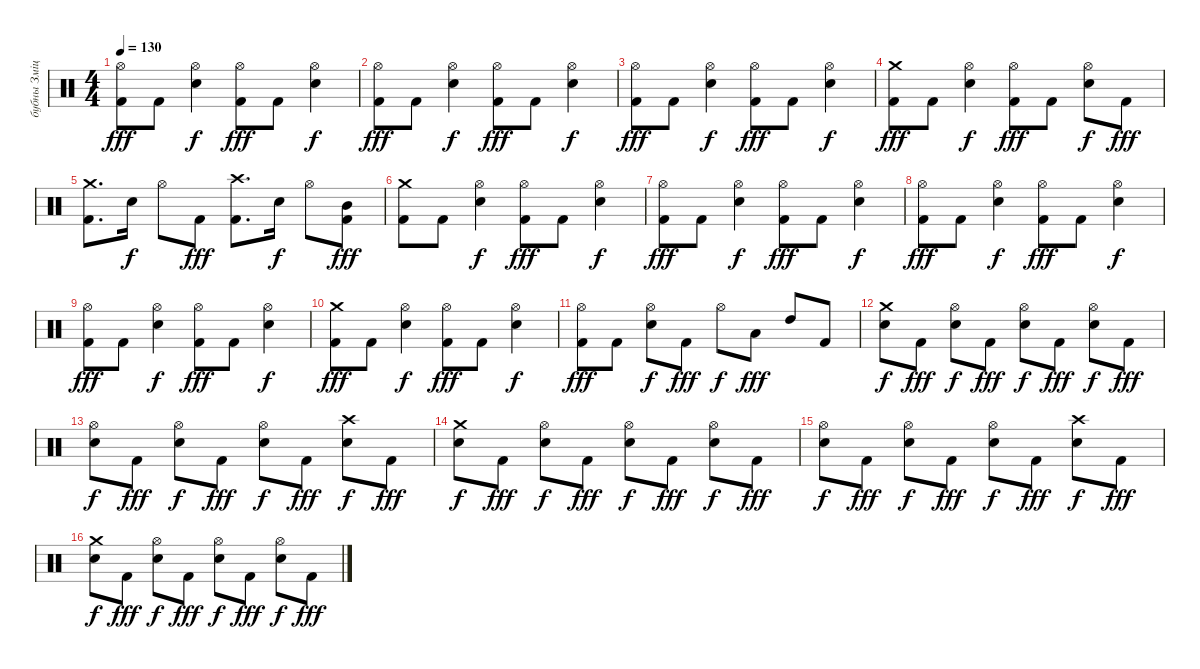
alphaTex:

\track ("бубны Змiцер" "бубны Змiц") {instrument percussion}
\staff {score}
\articulation defaults
\ts (4 4)
\tempo 130
\clef neutral
\ks c
("Hi-Hat (open)" "Kick (hit) 2").8{dy fff} "Kick (hit) 2".8 ("Hi-Hat (open)" "Electric Snare (hit)").4{dy f} ("Hi-Hat (open)" "Kick (hit) 2").8{dy fff} "Kick (hit) 2".8 ("Hi-Hat (open)" "Electric Snare (hit)").4{dy f} |
("Hi-Hat (open)" "Kick (hit) 2").8{dy fff} "Kick (hit) 2".8 ("Hi-Hat (open)" "Electric Snare (hit)").4{dy f} ("Hi-Hat (open)" "Kick (hit) 2").8{dy fff} "Kick (hit) 2".8 ("Hi-Hat (open)" "Electric Snare (hit)").4{dy f} |
("Hi-Hat (open)" "Kick (hit) 2").8{dy fff} "Kick (hit) 2".8 ("Hi-Hat (open)" "Electric Snare (hit)").4{dy f} ("Hi-Hat (open)" "Kick (hit) 2").8{dy fff} "Kick (hit) 2".8 ("Hi-Hat (open)" "Electric Snare (hit)").4{dy f} |
("Crash medium (hit)" "Kick (hit) 2").8{dy fff} "Kick (hit) 2".8 ("Hi-Hat (open)" "Electric Snare (hit)").4{dy f} ("Hi-Hat (open)" "Kick (hit) 2").8{dy fff} "Kick (hit) 2".8 ("Hi-Hat (open)" "Electric Snare (hit)").8{dy f} "Kick (hit) 2".8{dy fff} |
("Crash medium (hit)" "Kick (hit) 2").8{d} "Electric Snare (hit)".16{dy f} "Hi-Hat (open)".8 "Kick (hit) 2".8{dy fff} ("Crash high (hit)" "Kick (hit) 2").8{d} "Electric Snare (hit)".16{dy f} "Hi-Hat (open)".8 ("Mid Tom (hit)" "Kick (hit) 2").8{dy fff} |
("Crash medium (hit)" "Kick (hit) 2").8 "Kick (hit) 2".8 ("Hi-Hat (open)" "Electric Snare (hit)").4{dy f} ("Hi-Hat (open)" "Kick (hit) 2").8{dy fff} "Kick (hit) 2".8 ("Hi-Hat (open)" "Electric Snare (hit)").4{dy f} |
("Hi-Hat (open)" "Kick (hit) 2").8{dy fff} "Kick (hit) 2".8 ("Hi-Hat (open)" "Electric Snare (hit)").4{dy f} ("Hi-Hat (open)" "Kick (hit) 2").8{dy fff} "Kick (hit) 2".8 ("Hi-Hat (open)" "Electric Snare (hit)").4{dy f} |
("Hi-Hat (open)" "Kick (hit) 2").8{dy fff} "Kick (hit) 2".8 ("Hi-Hat (open)" "Electric Snare (hit)").4{dy f} ("Hi-Hat (open)" "Kick (hit) 2").8{dy fff} "Kick (hit) 2".8 ("Hi-Hat (open)" "Electric Snare (hit)").4{dy f} |
("Hi-Hat (open)" "Kick (hit) 2").8{dy fff} "Kick (hit) 2".8 ("Hi-Hat (open)" "Electric Snare (hit)").4{dy f} ("Hi-Hat (open)" "Kick (hit) 2").8{dy fff} "Kick (hit) 2".8 ("Hi-Hat (open)" "Electric Snare (hit)").4{dy f} |
("Crash medium (hit)" "Kick (hit) 2").8{dy fff} "Kick (hit) 2".8 ("Hi-Hat (open)" "Electric Snare (hit)").4{dy f} ("Hi-Hat (open)" "Kick (hit) 2").8{dy fff} "Kick (hit) 2".8 ("Hi-Hat (open)" "Electric Snare (hit)").4{dy f} |
("Hi-Hat (open)" "Kick (hit) 2").8{dy fff} "Kick (hit) 2".8 ("Hi-Hat (open)" "Electric Snare (hit)").8{dy f} "Kick (hit) 2".8{dy fff} "Hi-Hat (open)".8{dy f} "Low Tom (hit)".8{dy fff} "High Tom (hit)".8 "Kick (hit) 2".8 |
("Crash medium (hit)" "Electric Snare (hit)").8{dy f} "Kick (hit) 2".8{dy fff} ("Hi-Hat (open)" "Electric Snare (hit)").8{dy f} "Kick (hit) 2".8{dy fff} ("Hi-Hat (open)" "Electric Snare (hit)").8{dy f} "Kick (hit) 2".8{dy fff} ("Hi-Hat (open)" "Electric Snare (hit)").8{dy f} "Kick (hit) 2".8{dy fff} |
("Hi-Hat (open)" "Electric Snare (hit)").8{dy f} "Kick (hit) 2".8{dy fff} ("Hi-Hat (open)" "Electric Snare (hit)").8{dy f} "Kick (hit) 2".8{dy fff} ("Hi-Hat (open)" "Electric Snare (hit)").8{dy f} "Kick (hit) 2".8{dy fff} ("Crash high (hit)" "Electric Snare (hit)").8{dy f} "Kick (hit) 2".8{dy fff} |
("Crash medium (hit)" "Electric Snare (hit)").8{dy f} "Kick (hit) 2".8{dy fff} ("Hi-Hat (open)" "Electric Snare (hit)").8{dy f} "Kick (hit) 2".8{dy fff} ("Hi-Hat (open)" "Electric Snare (hit)").8{dy f} "Kick (hit) 2".8{dy fff} ("Hi-Hat (open)" "Electric Snare (hit)").8{dy f} "Kick (hit) 2".8{dy fff} |
("Hi-Hat (open)" "Electric Snare (hit)").8{dy f} "Kick (hit) 2".8{dy fff} ("Hi-Hat (open)" "Electric Snare (hit)").8{dy f} "Kick (hit) 2".8{dy fff} ("Hi-Hat (open)" "Electric Snare (hit)").8{dy f} "Kick (hit) 2".8{dy fff} ("Crash high (hit)" "Electric Snare (hit)").8{dy f} "Kick (hit) 2".8{dy fff} |
("Crash medium (hit)" "Electric Snare (hit)").8{dy f} "Kick (hit) 2".8{dy fff} ("Hi-Hat (open)" "Electric Snare (hit)").8{dy f} "Kick (hit) 2".8{dy fff} ("Hi-Hat (open)" "Electric Snare (hit)").8{dy f} "Kick (hit) 2".8{dy fff} ("Hi-Hat (open)" "Electric Snare (hit)").8{dy f} "Kick (hit) 2".8{dy fff}
